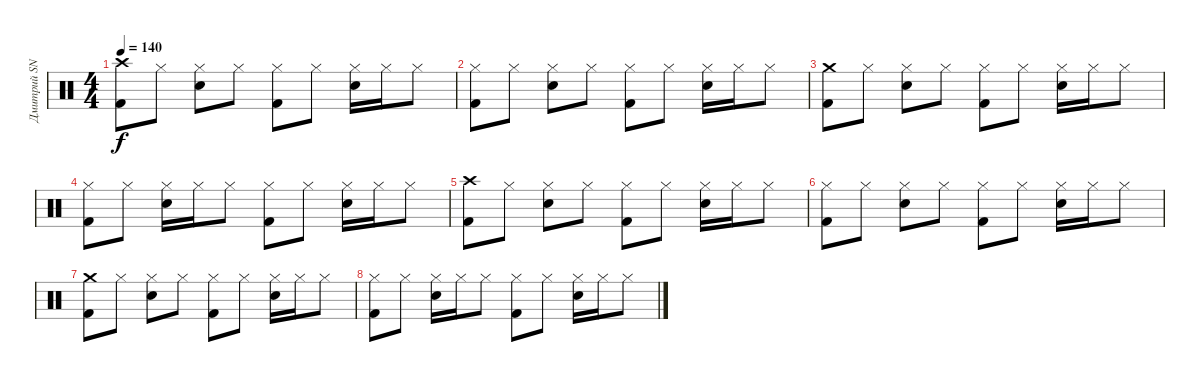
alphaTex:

\track ("Дмитрий SNAKE Хакимов" "Дмитрий SN") {instrument percussion}
\staff {score}
\articulation defaults
\ts (4 4)
\tempo 140
\clef neutral
\ks c
("Crash high (hit)" "Kick (hit) 2").8{dy f} "Hi-Hat (closed)".8 ("Hi-Hat (closed)" "Electric Snare (hit)").8 "Hi-Hat (closed)".8 ("Hi-Hat (closed)" "Kick (hit) 2").8 "Hi-Hat (closed)".8 ("Hi-Hat (closed)" "Electric Snare (hit)").16 "Hi-Hat (closed)".16 "Hi-Hat (closed)".8 |
("Hi-Hat (closed)" "Kick (hit) 2").8 "Hi-Hat (closed)".8 ("Hi-Hat (closed)" "Electric Snare (hit)").8 "Hi-Hat (closed)".8 ("Hi-Hat (closed)" "Kick (hit) 2").8 "Hi-Hat (closed)".8 ("Hi-Hat (closed)" "Electric Snare (hit)").16 "Hi-Hat (closed)".16 "Hi-Hat (closed)".8 |
("Crash medium (hit)" "Kick (hit) 2").8 "Hi-Hat (closed)".8 ("Hi-Hat (closed)" "Electric Snare (hit)").8 "Hi-Hat (closed)".8 ("Hi-Hat (closed)" "Kick (hit) 2").8 "Hi-Hat (closed)".8 ("Hi-Hat (closed)" "Electric Snare (hit)").16 "Hi-Hat (closed)".16 "Hi-Hat (closed)".8 |
("Hi-Hat (closed)" "Kick (hit) 2").8 "Hi-Hat (closed)".8 ("Hi-Hat (closed)" "Electric Snare (hit)").16 "Hi-Hat (closed)".16 "Hi-Hat (closed)".8 ("Hi-Hat (closed)" "Kick (hit) 2").8 "Hi-Hat (closed)".8 ("Hi-Hat (closed)" "Electric Snare (hit)").16 "Hi-Hat (closed)".16 "Hi-Hat (closed)".8 |
("Crash high (hit)" "Kick (hit) 2").8 "Hi-Hat (closed)".8 ("Hi-Hat (closed)" "Electric Snare (hit)").8 "Hi-Hat (closed)".8 ("Hi-Hat (closed)" "Kick (hit) 2").8 "Hi-Hat (closed)".8 ("Hi-Hat (closed)" "Electric Snare (hit)").16 "Hi-Hat (closed)".16 "Hi-Hat (closed)".8 |
("Hi-Hat (closed)" "Kick (hit) 2").8 "Hi-Hat (closed)".8 ("Hi-Hat (closed)" "Electric Snare (hit)").8 "Hi-Hat (closed)".8 ("Hi-Hat (closed)" "Kick (hit) 2").8 "Hi-Hat (closed)".8 ("Hi-Hat (closed)" "Electric Snare (hit)").16 "Hi-Hat (closed)".16 "Hi-Hat (closed)".8 |
("Crash medium (hit)" "Kick (hit) 2").8 "Hi-Hat (closed)".8 ("Hi-Hat (closed)" "Electric Snare (hit)").8 "Hi-Hat (closed)".8 ("Hi-Hat (closed)" "Kick (hit) 2").8 "Hi-Hat (closed)".8 ("Hi-Hat (closed)" "Electric Snare (hit)").16 "Hi-Hat (closed)".16 "Hi-Hat (closed)".8 |
("Hi-Hat (closed)" "Kick (hit) 2").8 "Hi-Hat (closed)".8 ("Hi-Hat (closed)" "Electric Snare (hit)").16 "Hi-Hat (closed)".16 "Hi-Hat (closed)".8 ("Hi-Hat (closed)" "Kick (hit) 2").8 "Hi-Hat (closed)".8 ("Hi-Hat (closed)" "Electric Snare (hit)").16 "Hi-Hat (closed)".16 "Hi-Hat (closed)".8
